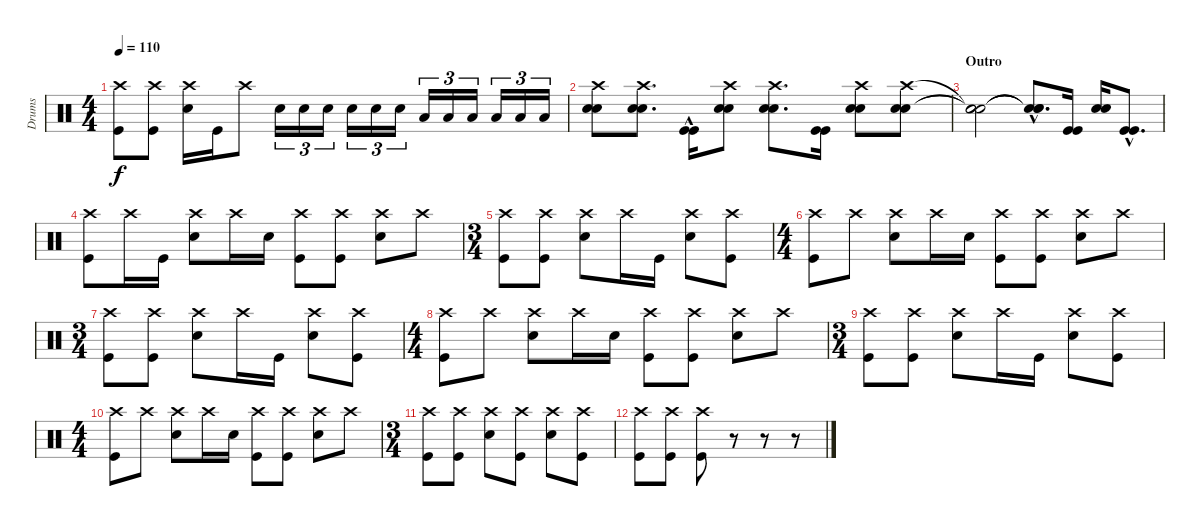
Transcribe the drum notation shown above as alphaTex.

\track ("Drums" "Drums") {instrument percussion}
\staff {score}
\articulation defaults
\ts (4 4)
\tempo 110
\clef neutral
\ks c
("Crash high (hit)" "Kick (hit)").8{dy f} ("Crash high (hit)" "Kick (hit)").8 ("Crash high (hit)" "Snare (hit) 2").16 "Kick (hit)".16 "Crash high (hit)".8 "Snare (hit) 2".16{tu (3 2)} "Snare (hit) 2".16{tu (3 2)} "Snare (hit) 2".16{tu (3 2)} "Snare (hit) 2".16{tu (3 2)} "Snare (hit) 2".16{tu (3 2)} "Snare (hit) 2".16{tu (3 2)} "Low Floor Tom (hit)".16{tu (3 2)} "Low Floor Tom (hit)".16{tu (3 2)} "Low Floor Tom (hit)".16{tu (3 2)} "Low Floor Tom (hit)".16{tu (3 2)} "Low Floor Tom (hit)".16{tu (3 2)} "Low Floor Tom (hit)".16{tu (3 2)} |
("Snare (hit) 2" "Snare (hit) 2" "Crash high (hit)").8 ("Snare (hit) 2" "Snare (hit) 2" "Crash high (hit)").8{d} ("Kick (hit)"{hac} "Kick (hit)"{hac}).16 ("Snare (hit) 2" "Snare (hit) 2" "Crash high (hit)").8 ("Snare (hit) 2" "Snare (hit) 2" "Crash high (hit)").8{d} ("Kick (hit)" "Kick (hit)").16 ("Snare (hit) 2" "Snare (hit) 2" "Crash high (hit)").8 ("Snare (hit) 2" "Snare (hit) 2" "Crash high (hit)").8 |
\section ("" "Outro")
("Snare (hit)"{t} "Snare (hit)"{t} "Snare (hit)"{t}).2 ("Snare (hit)"{hac t} "Snare (hit)"{hac t} "Snare (hit)"{hac t}).8{d} ("Kick (hit)" "Kick (hit)").16 ("Snare (hit) 2" "Snare (hit) 2").16 ("Kick (hit)"{hac} "Kick (hit)"{hac}).8{d} |
("Crash high (hit)" "Kick (hit)").8 "Crash high (hit)".16 "Kick (hit)".16 ("Crash high (hit)" "Snare (hit) 2").8 "Crash high (hit)".16 "Snare (hit) 2".16 ("Crash high (hit)" "Kick (hit)").8 ("Crash high (hit)" "Kick (hit)").8 ("Crash high (hit)" "Snare (hit) 2").8 "Crash high (hit)".8 |
\ts (3 4)
("Crash high (hit)" "Kick (hit)").8 ("Crash high (hit)" "Kick (hit)").8 ("Crash high (hit)" "Snare (hit) 2").8 "Crash high (hit)".16 "Kick (hit)".16 ("Crash high (hit)" "Snare (hit) 2").8 ("Crash high (hit)" "Kick (hit)").8 |
\ts (4 4)
("Crash high (hit)" "Kick (hit)").8 "Crash high (hit)".8 ("Crash high (hit)" "Snare (hit) 2").8 "Crash high (hit)".16 "Snare (hit) 2".16 ("Crash high (hit)" "Kick (hit)").8 ("Crash high (hit)" "Kick (hit)").8 ("Crash high (hit)" "Snare (hit) 2").8 "Crash high (hit)".8 |
\ts (3 4)
("Crash high (hit)" "Kick (hit)").8 ("Crash high (hit)" "Kick (hit)").8 ("Crash high (hit)" "Snare (hit) 2").8 "Crash high (hit)".16 "Kick (hit)".16 ("Crash high (hit)" "Snare (hit) 2").8 ("Crash high (hit)" "Kick (hit)").8 |
\ts (4 4)
("Crash high (hit)" "Kick (hit)").8 "Crash high (hit)".8 ("Crash high (hit)" "Snare (hit) 2").8 "Crash high (hit)".16 "Snare (hit) 2".16 ("Crash high (hit)" "Kick (hit)").8 ("Crash high (hit)" "Kick (hit)").8 ("Crash high (hit)" "Snare (hit) 2").8 "Crash high (hit)".8 |
\ts (3 4)
("Crash high (hit)" "Kick (hit)").8 ("Crash high (hit)" "Kick (hit)").8 ("Crash high (hit)" "Snare (hit) 2").8 "Crash high (hit)".16 "Kick (hit)".16 ("Crash high (hit)" "Snare (hit) 2").8 ("Crash high (hit)" "Kick (hit)").8 |
\ts (4 4)
("Crash high (hit)" "Kick (hit)").8 "Crash high (hit)".8 ("Crash high (hit)" "Snare (hit) 2").8 "Crash high (hit)".16 "Snare (hit) 2".16 ("Crash high (hit)" "Kick (hit)").8 ("Crash high (hit)" "Kick (hit)").8 ("Crash high (hit)" "Snare (hit) 2").8 "Crash high (hit)".8 |
\ts (3 4)
("Crash high (hit)" "Kick (hit)").8 ("Crash high (hit)" "Kick (hit)").8 ("Crash high (hit)" "Snare (hit) 2").8 ("Crash high (hit)" "Kick (hit)").8 ("Crash high (hit)" "Snare (hit) 2").8 ("Crash high (hit)" "Kick (hit)").8 |
("Crash high (hit)" "Kick (hit)").8 ("Crash high (hit)" "Kick (hit)").8 ("Crash high (hit)" "Kick (hit)").8 r.8 r.8 r.8
